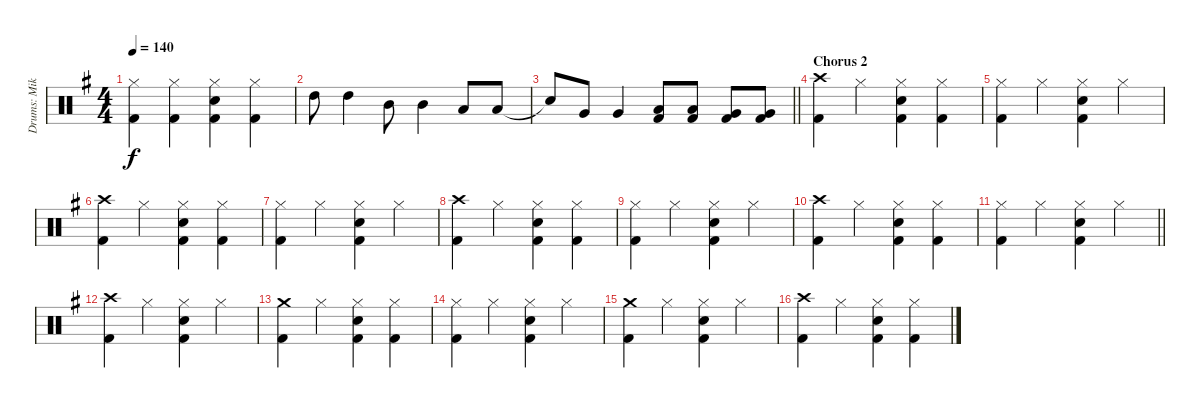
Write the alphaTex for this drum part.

\track ("Drums: Mike Terrana" "Drums: Mik") {instrument percussion}
\staff {score}
\articulation defaults
\ts (4 4)
\tempo 140
\clef neutral
\ks eminor
("Hi-Hat (closed)" "Kick (hit) 2").4{dy f} ("Hi-Hat (closed)" "Kick (hit) 2").4 ("Hi-Hat (closed)" "Electric Snare (hit)" "Kick (hit) 2").4 ("Hi-Hat (closed)" "Kick (hit) 2").4 |
"High Tom (hit)".8 "High Tom (hit)".4 "Mid Tom (hit)".8 "Mid Tom (hit)".4 "Low Tom (hit)".8 "Low Tom (hit)".8 |
\barLineRight lightlight "Snare (hit)"{t}.8 "Very Low Tom (hit)".8 "Very Low Tom (hit)".4
("Low Tom (hit)" "Kick (hit) 2").8 ("Low Tom (hit)" "Kick (hit) 2").8 ("Very Low Tom (hit)" "Kick (hit) 2").8 ("Very Low Tom (hit)" "Kick (hit) 2").8 |
\section ("" "Chorus 2")
("Crash high (hit)" "Kick (hit) 2").4 "Hi-Hat (closed)".4 ("Hi-Hat (closed)" "Electric Snare (hit)" "Kick (hit) 2").4 ("Hi-Hat (closed)" "Kick (hit) 2").4 |
("Hi-Hat (closed)" "Kick (hit) 2").4 "Hi-Hat (closed)".4 ("Hi-Hat (closed)" "Electric Snare (hit)" "Kick (hit) 2").4 "Hi-Hat (closed)".4 |
("Crash high (hit)" "Kick (hit) 2").4 "Hi-Hat (closed)".4 ("Hi-Hat (closed)" "Electric Snare (hit)" "Kick (hit) 2").4 ("Hi-Hat (closed)" "Kick (hit) 2").4 |
("Hi-Hat (closed)" "Kick (hit) 2").4 "Hi-Hat (closed)".4 ("Hi-Hat (closed)" "Electric Snare (hit)" "Kick (hit) 2").4 "Hi-Hat (closed)".4 |
("Crash high (hit)" "Kick (hit) 2").4 "Hi-Hat (closed)".4 ("Hi-Hat (closed)" "Electric Snare (hit)" "Kick (hit) 2").4 ("Hi-Hat (closed)" "Kick (hit) 2").4 |
("Hi-Hat (closed)" "Kick (hit) 2").4 "Hi-Hat (closed)".4 ("Hi-Hat (closed)" "Electric Snare (hit)" "Kick (hit) 2").4 "Hi-Hat (closed)".4 |
("Crash high (hit)" "Kick (hit) 2").4 "Hi-Hat (closed)".4 ("Hi-Hat (closed)" "Electric Snare (hit)" "Kick (hit) 2").4 ("Hi-Hat (closed)" "Kick (hit) 2").4 |
\barLineRight lightlight
("Hi-Hat (closed)" "Kick (hit) 2").4 "Hi-Hat (closed)".4 ("Hi-Hat (closed)" "Electric Snare (hit)" "Kick (hit) 2").4 "Hi-Hat (closed)".4 |
("Crash high (hit)" "Kick (hit) 2").4 "Hi-Hat (closed)".4 ("Hi-Hat (closed)" "Electric Snare (hit)" "Kick (hit) 2").4 "Hi-Hat (closed)".4 |
("Crash medium (hit)" "Kick (hit) 2").4 "Hi-Hat (closed)".4 ("Hi-Hat (closed)" "Electric Snare (hit)" "Kick (hit) 2").4 ("Hi-Hat (closed)" "Kick (hit) 2").4 |
("Hi-Hat (closed)" "Kick (hit) 2").4 "Hi-Hat (closed)".4 ("Hi-Hat (closed)" "Electric Snare (hit)" "Kick (hit) 2").4 "Hi-Hat (closed)".4 |
("Crash medium (hit)" "Kick (hit) 2").4 "Hi-Hat (closed)".4 ("Hi-Hat (closed)" "Electric Snare (hit)" "Kick (hit) 2").4 "Hi-Hat (closed)".4 |
("Crash high (hit)" "Kick (hit) 2").4 "Hi-Hat (closed)".4 ("Hi-Hat (closed)" "Electric Snare (hit)" "Kick (hit) 2").4 ("Hi-Hat (closed)" "Kick (hit) 2").4
